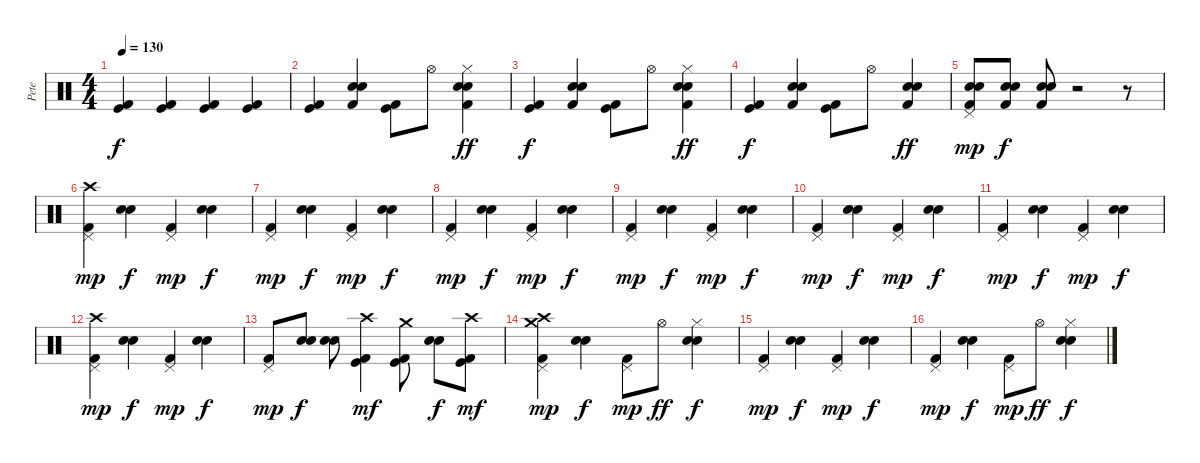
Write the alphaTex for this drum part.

\track ("Pete" "Pete") {instrument percussion}
\staff {score}
\articulation defaults
\ts (4 4)
\tempo 130
\clef neutral
\ks c
("Kick (hit)" "Kick (hit) 2").4{dy f} ("Kick (hit)" "Kick (hit) 2").4 ("Kick (hit)" "Kick (hit) 2").4 ("Kick (hit)" "Kick (hit) 2").4 |
("Kick (hit)" "Kick (hit) 2").4 ("Electric Snare (hit)" "Kick (hit) 2" "Snare (hit) 2").4 ("Kick (hit)" "Kick (hit) 2").8 "Hi-Hat (open)".8 ("Kick (hit) 2" "Hi-Hat (closed)" "Electric Snare (hit)" "Snare (hit) 2").4{dy ff} |
("Kick (hit)" "Kick (hit) 2").4{dy f} ("Kick (hit) 2" "Electric Snare (hit)" "Snare (hit) 2").4 ("Kick (hit)" "Kick (hit) 2").8 "Hi-Hat (open)".8 ("Kick (hit) 2" "Electric Snare (hit)" "Hi-Hat (closed)" "Snare (hit) 2").4{dy ff} |
("Kick (hit) 2" "Kick (hit)").4{dy f} ("Kick (hit) 2" "Snare (hit) 2" "Electric Snare (hit)").4 ("Kick (hit)" "Kick (hit) 2").8 "Hi-Hat (open)".8 ("Kick (hit) 2" "Electric Snare (hit)" "Snare (hit) 2").4{dy ff} |
("Pedal Hi-Hat (hit)" "Electric Snare (hit)" "Kick (hit) 2" "Snare (hit) 2").8{dy mp} ("Electric Snare (hit)" "Snare (hit) 2" "Kick (hit) 2").8{dy f} ("Electric Snare (hit)" "Snare (hit) 2" "Kick (hit) 2").8 r.2 r.8 |
("Pedal Hi-Hat (hit)" "Crash high (hit)" "Kick (hit) 2").4{dy mp} ("Snare (hit) 2" "Electric Snare (hit)").4{dy f} ("Pedal Hi-Hat (hit)" "Kick (hit) 2").4{dy mp} ("Snare (hit) 2" "Electric Snare (hit)").4{dy f} |
("Pedal Hi-Hat (hit)" "Kick (hit) 2").4{dy mp} ("Snare (hit) 2" "Electric Snare (hit)").4{dy f} ("Pedal Hi-Hat (hit)" "Kick (hit) 2").4{dy mp} ("Snare (hit) 2" "Electric Snare (hit)").4{dy f} |
("Pedal Hi-Hat (hit)" "Kick (hit) 2").4{dy mp} ("Snare (hit) 2" "Electric Snare (hit)").4{dy f} ("Pedal Hi-Hat (hit)" "Kick (hit) 2").4{dy mp} ("Snare (hit) 2" "Electric Snare (hit)").4{dy f} |
("Pedal Hi-Hat (hit)" "Kick (hit) 2").4{dy mp} ("Snare (hit) 2" "Electric Snare (hit)").4{dy f} ("Pedal Hi-Hat (hit)" "Kick (hit) 2").4{dy mp} ("Snare (hit) 2" "Electric Snare (hit)").4{dy f} |
("Pedal Hi-Hat (hit)" "Kick (hit) 2").4{dy mp} ("Snare (hit) 2" "Electric Snare (hit)").4{dy f} ("Pedal Hi-Hat (hit)" "Kick (hit) 2").4{dy mp} ("Snare (hit) 2" "Electric Snare (hit)").4{dy f} |
("Pedal Hi-Hat (hit)" "Kick (hit) 2").4{dy mp} ("Snare (hit) 2" "Electric Snare (hit)").4{dy f} ("Pedal Hi-Hat (hit)" "Kick (hit) 2").4{dy mp} ("Snare (hit) 2" "Electric Snare (hit)").4{dy f} |
("Pedal Hi-Hat (hit)" "Crash high (hit)" "Kick (hit) 2").4{dy mp} ("Snare (hit) 2" "Electric Snare (hit)").4{dy f} ("Pedal Hi-Hat (hit)" "Kick (hit) 2").4{dy mp} ("Snare (hit) 2" "Electric Snare (hit)").4{dy f} |
("Pedal Hi-Hat (hit)" "Kick (hit) 2").8{dy mp} ("Snare (hit) 2" "Electric Snare (hit)").8{dy f} ("Snare (hit) 2" "Electric Snare (hit)").8 ("Kick (hit)" "Kick (hit) 2" "Crash high (hit)").4{dy mf} ("Kick (hit)" "Kick (hit) 2" "Crash medium (hit)").8 ("Snare (hit) 2" "Electric Snare (hit)").8{dy f} ("Kick (hit)" "Kick (hit) 2" "Crash high (hit)").8{dy mf} |
("Crash medium (hit)" "Crash high (hit)" "Pedal Hi-Hat (hit)" "Kick (hit) 2").4{dy mp} ("Snare (hit) 2" "Electric Snare (hit)").4{dy f} ("Pedal Hi-Hat (hit)" "Kick (hit) 2").8{dy mp} "Hi-Hat (open)".8{dy ff} ("Hi-Hat (closed)" "Snare (hit) 2" "Electric Snare (hit)").4{dy f} |
("Pedal Hi-Hat (hit)" "Kick (hit) 2").4{dy mp} ("Snare (hit) 2" "Electric Snare (hit)").4{dy f} ("Pedal Hi-Hat (hit)" "Kick (hit) 2").4{dy mp} ("Snare (hit) 2" "Electric Snare (hit)").4{dy f} |
("Pedal Hi-Hat (hit)" "Kick (hit) 2").4{dy mp} ("Snare (hit) 2" "Electric Snare (hit)").4{dy f} ("Pedal Hi-Hat (hit)" "Kick (hit) 2").8{dy mp} "Hi-Hat (open)".8{dy ff} ("Hi-Hat (closed)" "Snare (hit) 2" "Electric Snare (hit)").4{dy f}
